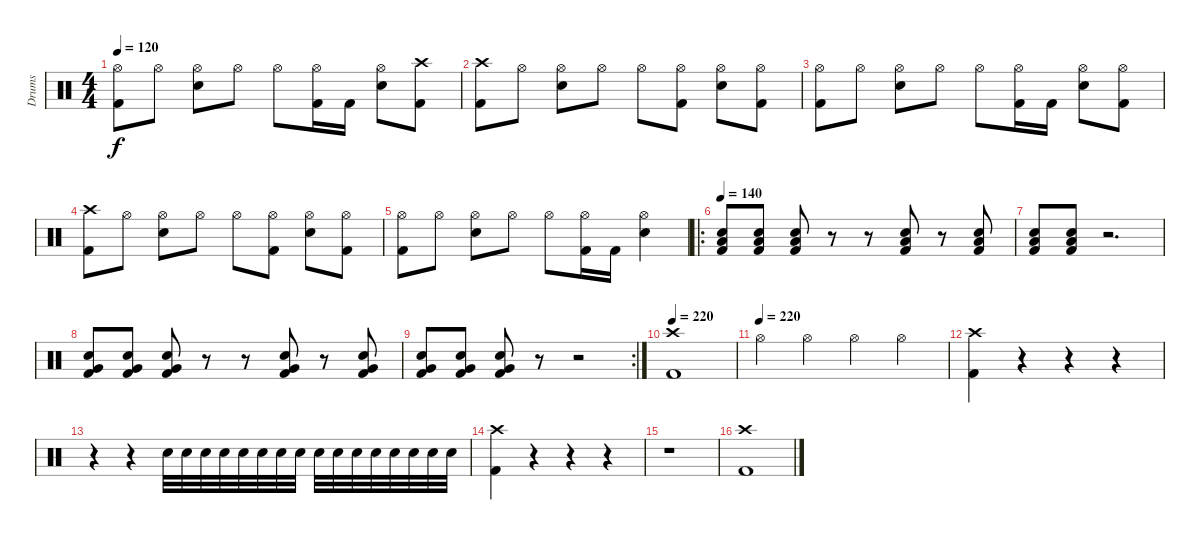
\track ("Drums" "Drums") {instrument percussion}
\staff {score}
\articulation defaults
\ts (4 4)
\tempo 120
\clef neutral
\ks c
("Hi-Hat (open)" "Kick (hit) 2").8{dy f} "Hi-Hat (open)".8 ("Hi-Hat (open)" "Snare (hit) 2").8 "Hi-Hat (open)".8 "Hi-Hat (open)".8 ("Hi-Hat (open)" "Kick (hit) 2").16 "Kick (hit) 2".16 ("Hi-Hat (open)" "Snare (hit) 2").8 ("Crash high (hit)" "Kick (hit) 2").8 |
("Crash high (hit)" "Kick (hit) 2").8 "Hi-Hat (open)".8 ("Hi-Hat (open)" "Snare (hit) 2").8 "Hi-Hat (open)".8 "Hi-Hat (open)".8 ("Hi-Hat (open)" "Kick (hit) 2").8 ("Hi-Hat (open)" "Snare (hit) 2").8 ("Hi-Hat (open)" "Kick (hit) 2").8 |
("Hi-Hat (open)" "Kick (hit) 2").8 "Hi-Hat (open)".8 ("Hi-Hat (open)" "Snare (hit) 2").8 "Hi-Hat (open)".8 "Hi-Hat (open)".8 ("Hi-Hat (open)" "Kick (hit) 2").16 "Kick (hit) 2".16 ("Hi-Hat (open)" "Snare (hit) 2").8 ("Hi-Hat (open)" "Kick (hit) 2").8 |
("Crash high (hit)" "Kick (hit) 2").8 "Hi-Hat (open)".8 ("Hi-Hat (open)" "Snare (hit) 2").8 "Hi-Hat (open)".8 "Hi-Hat (open)".8 ("Hi-Hat (open)" "Kick (hit) 2").8 ("Hi-Hat (open)" "Snare (hit) 2").8 ("Hi-Hat (open)" "Kick (hit) 2").8 |
("Hi-Hat (open)" "Kick (hit) 2").8 "Hi-Hat (open)".8 ("Hi-Hat (open)" "Snare (hit) 2").8 "Hi-Hat (open)".8 "Hi-Hat (open)".8 ("Hi-Hat (open)" "Kick (hit) 2").16 "Kick (hit) 2".16 ("Hi-Hat (open)" "Snare (hit) 2").4 |
\ro
\tempo 140
("Low Tom (hit)" "Snare (hit) 2" "Kick (hit) 2").8 ("Low Tom (hit)" "Snare (hit) 2" "Kick (hit) 2").8 ("Low Tom (hit)" "Snare (hit) 2" "Kick (hit) 2").8 r.8 r.8 ("Low Tom (hit)" "Snare (hit) 2" "Kick (hit) 2").8 r.8 ("Low Tom (hit)" "Snare (hit) 2" "Kick (hit) 2").8 |
("Low Tom (hit)" "Snare (hit) 2" "Kick (hit) 2").8 ("Low Tom (hit)" "Snare (hit) 2" "Kick (hit) 2").8 r.2{d} |
("Very Low Tom (hit)" "Snare (hit) 2" "Kick (hit) 2").8 ("Very Low Tom (hit)" "Snare (hit) 2" "Kick (hit) 2").8 ("Very Low Tom (hit)" "Snare (hit) 2" "Kick (hit) 2").8 r.8 r.8 ("Very Low Tom (hit)" "Snare (hit) 2" "Kick (hit) 2").8 r.8 ("Very Low Tom (hit)" "Snare (hit) 2" "Kick (hit) 2").8 |
\rc 2
("Very Low Tom (hit)" "Snare (hit) 2" "Kick (hit) 2").8 ("Very Low Tom (hit)" "Snare (hit) 2" "Kick (hit) 2").8 ("Very Low Tom (hit)" "Snare (hit) 2" "Kick (hit) 2").8 r.8 r.2 |
\tempo 220
("Crash high (hit)" "Kick (hit) 2").1 |
\tempo (220)
"Hi-Hat (open)".4 "Hi-Hat (open)".4 "Hi-Hat (open)".4 "Hi-Hat (open)".4 |
("Crash high (hit)" "Kick (hit) 2").4 r.4 r.4 r.4 |
r.4 r.4 "Snare (hit) 2".32 "Snare (hit) 2".32 "Snare (hit) 2".32 "Snare (hit) 2".32 "Snare (hit) 2".32 "Snare (hit) 2".32 "Snare (hit) 2".32 "Snare (hit) 2".32 "Snare (hit) 2".32 "Snare (hit) 2".32 "Snare (hit) 2".32 "Snare (hit) 2".32 "Snare (hit) 2".32 "Snare (hit) 2".32 "Snare (hit) 2".32 "Snare (hit) 2".32 |
("Crash high (hit)" "Kick (hit) 2").4 r.4 r.4 r.4 |
r.1 |
("Crash high (hit)" "Kick (hit) 2").1
